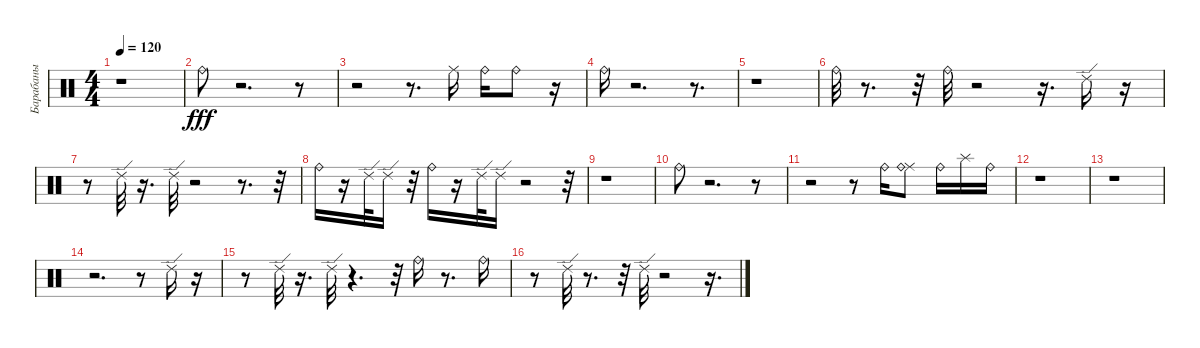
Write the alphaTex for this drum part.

\track ("Барабаны" "Барабаны") {instrument percussion}
\staff {score}
\articulation defaults
\ts (4 4)
\tempo 120
\clef neutral
\ks c
r.1{dy fff} |
"Ride (bell)".8 r.2{d} r.8 |
r.2 r.8{d} "Ride (middle)".16 "Ride (bell)".16 "Ride (bell)".8 r.16 |
"Ride (bell)".16 r.2{d} r.8{d} |
r.1 |
"Ride (bell)".32 r.8{d} r.32 "Ride (bell)".32 r.2 r.16{d} "Ride (edge) 2".16 r.16 |
r.8 "Ride (edge) 2".32 r.16{d} "Ride (edge) 2".32 r.2 r.8{d} r.32 |
"Ride (bell)".16 r.16 "Ride (edge) 2".32 "Ride (edge) 2".16 r.32 "Ride (bell)".16 r.16 "Ride (edge) 2".32 "Ride (edge) 2".16 r.2 r.32 |
r.1 |
"Ride (bell)".8 r.2{d} r.8 |
r.2 r.8 "Ride (bell)".16 ("Ride (middle)" "Ride (bell)").8 "Ride (bell)".16 "Splash (hit)".16 "Ride (bell)".16 |
r.1 |
r.1 |
r.2{d} r.8 "Ride (edge) 2".16 r.16 |
r.8 "Ride (edge) 2".32 r.16{d} "Ride (edge) 2".32 r.4{d} r.32 "Ride (bell)".16 r.8{d} "Ride (bell)".16 |
r.8 "Ride (edge) 2".32 r.8{d} r.32 "Ride (edge) 2".32 r.2 r.16{d}
